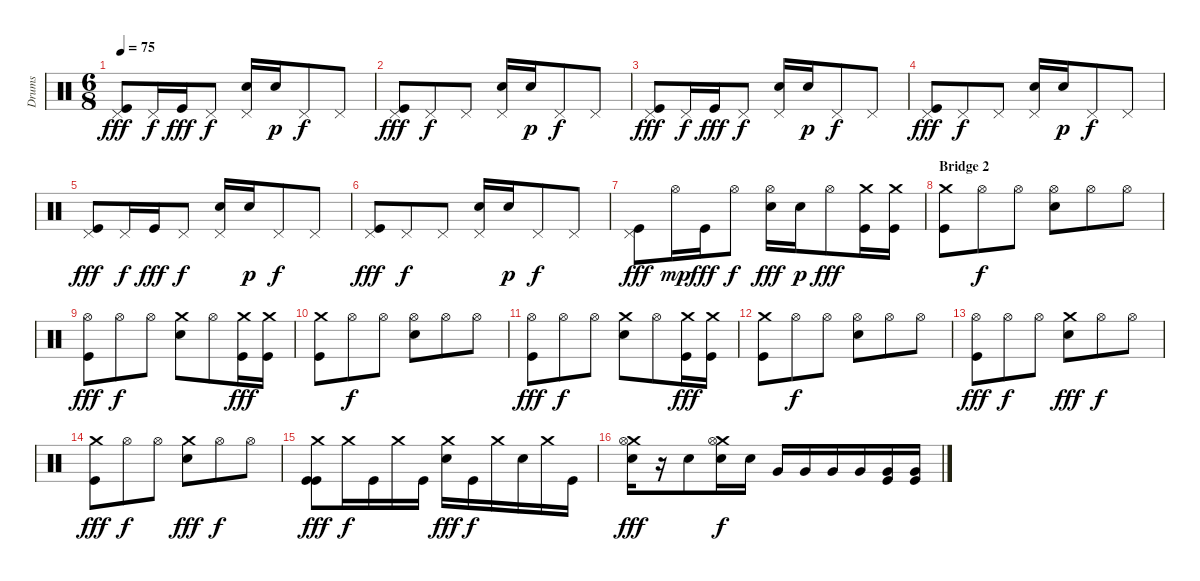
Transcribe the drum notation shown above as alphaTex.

\track ("Drums" "Drums") {instrument percussion}
\staff {score}
\articulation defaults
\ts (6 8)
\tempo 75
\clef neutral
\ks c
("Pedal Hi-Hat (hit)" "Kick (hit)").8{dy fff} "Pedal Hi-Hat (hit)".16{dy f} "Kick (hit)".16{dy fff} "Pedal Hi-Hat (hit)".8{dy f} ("Pedal Hi-Hat (hit)" "Snare (hit) 2").16 "Snare (hit) 2".16{dy p} "Pedal Hi-Hat (hit)".8{dy f} "Pedal Hi-Hat (hit)".8 |
("Pedal Hi-Hat (hit)" "Kick (hit)").8{dy fff} "Pedal Hi-Hat (hit)".8{dy f} "Pedal Hi-Hat (hit)".8 ("Pedal Hi-Hat (hit)" "Snare (hit) 2").16 "Snare (hit) 2".16{dy p} "Pedal Hi-Hat (hit)".8{dy f} "Pedal Hi-Hat (hit)".8 |
("Pedal Hi-Hat (hit)" "Kick (hit)").8{dy fff} "Pedal Hi-Hat (hit)".16{dy f} "Kick (hit)".16{dy fff} "Pedal Hi-Hat (hit)".8{dy f} ("Pedal Hi-Hat (hit)" "Snare (hit) 2").16 "Snare (hit) 2".16{dy p} "Pedal Hi-Hat (hit)".8{dy f} "Pedal Hi-Hat (hit)".8 |
("Pedal Hi-Hat (hit)" "Kick (hit)").8{dy fff} "Pedal Hi-Hat (hit)".8{dy f} "Pedal Hi-Hat (hit)".8 ("Pedal Hi-Hat (hit)" "Snare (hit) 2").16 "Snare (hit) 2".16{dy p} "Pedal Hi-Hat (hit)".8{dy f} "Pedal Hi-Hat (hit)".8 |
("Pedal Hi-Hat (hit)" "Kick (hit)").8{dy fff} "Pedal Hi-Hat (hit)".16{dy f} "Kick (hit)".16{dy fff} "Pedal Hi-Hat (hit)".8{dy f} ("Pedal Hi-Hat (hit)" "Snare (hit) 2").16 "Snare (hit) 2".16{dy p} "Pedal Hi-Hat (hit)".8{dy f} "Pedal Hi-Hat (hit)".8 |
("Pedal Hi-Hat (hit)" "Kick (hit)").8{dy fff} "Pedal Hi-Hat (hit)".8{dy f} "Pedal Hi-Hat (hit)".8 ("Pedal Hi-Hat (hit)" "Snare (hit) 2").16 "Snare (hit) 2".16{dy p} "Pedal Hi-Hat (hit)".8{dy f} "Pedal Hi-Hat (hit)".8 |
("Pedal Hi-Hat (hit)" "Kick (hit)").8{dy fff} "Hi-Hat (open)".16{dy mp} "Kick (hit)".16{dy fff} "Hi-Hat (open)".8{dy f} ("Hi-Hat (open)" "Snare (hit) 2").16{dy fff} "Snare (hit) 2".16{dy p} "Hi-Hat (open)".8{dy fff} ("Crash medium (hit)" "Kick (hit)").16 ("Crash medium (hit)" "Kick (hit)").16 |
\section ("" "Bridge 2")
("Crash medium (hit)" "Kick (hit)").8 "Hi-Hat (open)".8{dy f} "Hi-Hat (open)".8 ("Hi-Hat (open)" "Snare (hit) 2").8 "Hi-Hat (open)".8 "Hi-Hat (open)".8 |
("Hi-Hat (open)" "Kick (hit)").8{dy fff} "Hi-Hat (open)".8{dy f} "Hi-Hat (open)".8 ("Crash medium (hit)" "Snare (hit) 2").8 "Hi-Hat (open)".8 ("Crash medium (hit)" "Kick (hit)").16{dy fff} ("Crash medium (hit)" "Kick (hit)").16 |
("Crash medium (hit)" "Kick (hit)").8 "Hi-Hat (open)".8{dy f} "Hi-Hat (open)".8 ("Hi-Hat (open)" "Snare (hit) 2").8 "Hi-Hat (open)".8 "Hi-Hat (open)".8 |
("Hi-Hat (open)" "Kick (hit)").8{dy fff} "Hi-Hat (open)".8{dy f} "Hi-Hat (open)".8 ("Crash medium (hit)" "Snare (hit) 2").8 "Hi-Hat (open)".8 ("Crash medium (hit)" "Kick (hit)").16{dy fff} ("Crash medium (hit)" "Kick (hit)").16 |
("Crash medium (hit)" "Kick (hit)").8 "Hi-Hat (open)".8{dy f} "Hi-Hat (open)".8 ("Hi-Hat (open)" "Snare (hit) 2").8 "Hi-Hat (open)".8 "Hi-Hat (open)".8 |
("Hi-Hat (open)" "Kick (hit)").8{dy fff} "Hi-Hat (open)".8{dy f} "Hi-Hat (open)".8 ("Crash medium (hit)" "Snare (hit) 2").8{dy fff} "Hi-Hat (open)".8{dy f} "Hi-Hat (open)".8 |
("Crash medium (hit)" "Kick (hit)").8{dy fff} "Hi-Hat (open)".8{dy f} "Hi-Hat (open)".8 ("Crash medium (hit)" "Snare (hit) 2").8{dy fff} "Hi-Hat (open)".8{dy f} "Hi-Hat (open)".8 |
("Crash medium (hit)" "Kick (hit)" "Kick (hit)").8{dy fff} "Crash medium (hit)".16{dy f} "Kick (hit)".16 "Crash medium (hit)".16 "Kick (hit)".16 ("Crash medium (hit)" "Snare (hit) 2").16{dy fff} "Kick (hit)".16{dy f} "Crash medium (hit)".16 "Snare (hit) 2".16 "Crash medium (hit)".16 "Kick (hit)".16 |
("Crash medium (hit)" "Hi-Hat (open)" "Snare (hit) 2").16{dy fff} r.16 "Snare (hit) 2".8 ("Crash medium (hit)" "Hi-Hat (open)" "Snare (hit) 2").16{dy f} "Snare (hit) 2".16 "Very Low Tom (hit)".16 "Very Low Tom (hit)".16 "Very Low Tom (hit)".16 "Very Low Tom (hit)".16 ("Very Low Tom (hit)" "Kick (hit)").16 ("Very Low Tom (hit)" "Kick (hit)").16
